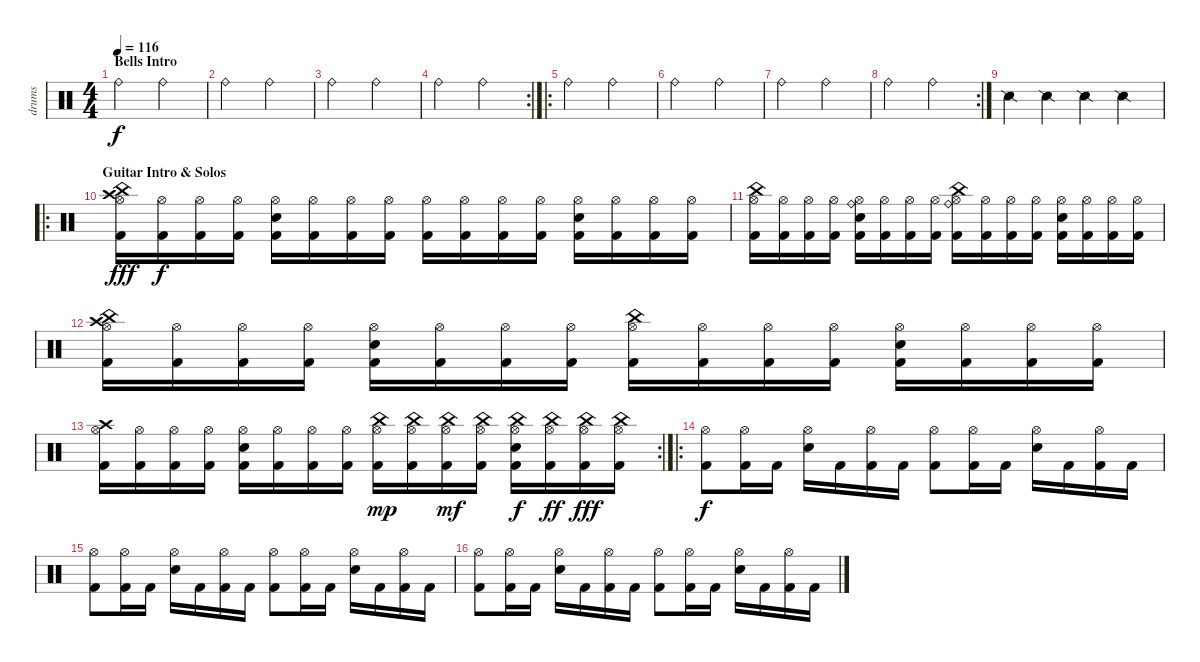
\track ("drums" "drums") {instrument percussion}
\staff {score}
\articulation defaults
\ts (4 4)
\section ("" "Bells Intro")
\tempo 116
\clef neutral
\ks c "Ride (bell)".2{dy f} "Ride (bell)".2
|
"Ride (bell)".2 "Ride (bell)".2 |
"Ride (bell)".2 "Ride (bell)".2 |
\rc 2 "Ride (bell)".2 "Ride (bell)".2
|
\ro "Ride (bell)".2 "Ride (bell)".2
|
"Ride (bell)".2 "Ride (bell)".2 |
"Ride (bell)".2 "Ride (bell)".2 |
\rc 2 "Ride (bell)".2 "Ride (bell)".2
|
"Snare (side stick) 2".4 "Snare (side stick) 2".4 "Snare (side stick) 2".4 "Snare (side stick) 2".4 |
\ro
\section ("" "Guitar Intro & Solos")
("China (hit)" "Crash high (hit)" "Hi-Hat (open)" "Kick (hit) 2").16{dy fff} ("Hi-Hat (open)" "Kick (hit) 2").16{dy f} ("Hi-Hat (open)" "Kick (hit) 2").16 ("Hi-Hat (open)" "Kick (hit) 2").16 ("Hi-Hat (open)" "Electric Snare (hit)" "Kick (hit) 2").16 ("Hi-Hat (open)" "Kick (hit) 2").16 ("Hi-Hat (open)" "Kick (hit) 2").16 ("Hi-Hat (open)" "Kick (hit) 2").16 ("Hi-Hat (open)" "Kick (hit) 2").16 ("Hi-Hat (open)" "Kick (hit) 2").16 ("Hi-Hat (open)" "Kick (hit) 2").16 ("Hi-Hat (open)" "Kick (hit) 2").16 ("Hi-Hat (open)" "Electric Snare (hit)" "Kick (hit) 2").16 ("Hi-Hat (open)" "Kick (hit) 2").16 ("Hi-Hat (open)" "Kick (hit) 2").16 ("Hi-Hat (open)" "Kick (hit) 2").16 |
("China (hit)" "Hi-Hat (open)" "Kick (hit) 2").16 ("Hi-Hat (open)" "Kick (hit) 2").16 ("Hi-Hat (open)" "Kick (hit) 2").16 ("Hi-Hat (open)" "Kick (hit) 2").16 ("Ride (bell)" "Hi-Hat (open)" "Electric Snare (hit)" "Kick (hit) 2").16 ("Hi-Hat (open)" "Kick (hit) 2").16 ("Hi-Hat (open)" "Kick (hit) 2").16 ("Hi-Hat (open)" "Kick (hit) 2").16 ("Ride (bell)" "China (hit)" "Hi-Hat (open)" "Kick (hit) 2").16 ("Hi-Hat (open)" "Kick (hit) 2").16 ("Hi-Hat (open)" "Kick (hit) 2").16 ("Hi-Hat (open)" "Kick (hit) 2").16 ("Hi-Hat (open)" "Electric Snare (hit)" "Kick (hit) 2").16 ("Hi-Hat (open)" "Kick (hit) 2").16 ("Hi-Hat (open)" "Kick (hit) 2").16 ("Hi-Hat (open)" "Kick (hit) 2").16 |
("China (hit)" "Crash high (hit)" "Hi-Hat (open)" "Kick (hit) 2").16 ("Hi-Hat (open)" "Kick (hit) 2").16 ("Hi-Hat (open)" "Kick (hit) 2").16 ("Hi-Hat (open)" "Kick (hit) 2").16 ("Hi-Hat (open)" "Electric Snare (hit)" "Kick (hit) 2").16 ("Hi-Hat (open)" "Kick (hit) 2").16 ("Hi-Hat (open)" "Kick (hit) 2").16 ("Hi-Hat (open)" "Kick (hit) 2").16 ("China (hit)" "Hi-Hat (open)" "Kick (hit) 2").16 ("Hi-Hat (open)" "Kick (hit) 2").16 ("Hi-Hat (open)" "Kick (hit) 2").16 ("Hi-Hat (open)" "Kick (hit) 2").16 ("Hi-Hat (open)" "Electric Snare (hit)" "Kick (hit) 2").16 ("Hi-Hat (open)" "Kick (hit) 2").16 ("Hi-Hat (open)" "Kick (hit) 2").16 ("Hi-Hat (open)" "Kick (hit) 2").16 |
\rc 2
("Crash high (hit)" "Hi-Hat (open)" "Kick (hit) 2").16 ("Hi-Hat (open)" "Kick (hit) 2").16 ("Hi-Hat (open)" "Kick (hit) 2").16 ("Hi-Hat (open)" "Kick (hit) 2").16 ("Hi-Hat (open)" "Electric Snare (hit)" "Kick (hit) 2").16 ("Hi-Hat (open)" "Kick (hit) 2").16 ("Hi-Hat (open)" "Kick (hit) 2").16 ("Hi-Hat (open)" "Kick (hit) 2").16 ("China (hit)" "Hi-Hat (open)" "Kick (hit) 2").16{dy mp} ("China (hit)" "Hi-Hat (open)" "Kick (hit) 2").16 ("China (hit)" "Hi-Hat (open)" "Kick (hit) 2").16{dy mf} ("China (hit)" "Hi-Hat (open)" "Kick (hit) 2").16 ("China (hit)" "Hi-Hat (open)" "Electric Snare (hit)" "Kick (hit) 2").16{dy f} ("China (hit)" "Hi-Hat (open)" "Kick (hit) 2").16{dy ff} ("China (hit)" "Hi-Hat (open)" "Kick (hit) 2").16{dy fff} ("China (hit)" "Hi-Hat (open)" "Kick (hit) 2").16 |
\ro
("Hi-Hat (open)" "Kick (hit) 2").8{dy f} ("Hi-Hat (open)" "Kick (hit) 2").16 "Kick (hit) 2".16 ("Hi-Hat (open)" "Electric Snare (hit)").16 "Kick (hit) 2".16 ("Hi-Hat (open)" "Kick (hit) 2").16 "Kick (hit) 2".16 ("Hi-Hat (open)" "Kick (hit) 2").8 ("Hi-Hat (open)" "Kick (hit) 2").16 "Kick (hit) 2".16 ("Hi-Hat (open)" "Electric Snare (hit)").16 "Kick (hit) 2".16 ("Hi-Hat (open)" "Kick (hit) 2").16 "Kick (hit) 2".16 |
("Hi-Hat (open)" "Kick (hit) 2").8 ("Hi-Hat (open)" "Kick (hit) 2").16 "Kick (hit) 2".16 ("Hi-Hat (open)" "Electric Snare (hit)").16 "Kick (hit) 2".16 ("Hi-Hat (open)" "Kick (hit) 2").16 "Kick (hit) 2".16 ("Hi-Hat (open)" "Kick (hit) 2").8 ("Hi-Hat (open)" "Kick (hit) 2").16 "Kick (hit) 2".16 ("Hi-Hat (open)" "Electric Snare (hit)").16 "Kick (hit) 2".16 ("Hi-Hat (open)" "Kick (hit) 2").16 "Kick (hit) 2".16 |
("Hi-Hat (open)" "Kick (hit) 2").8 ("Hi-Hat (open)" "Kick (hit) 2").16 "Kick (hit) 2".16 ("Hi-Hat (open)" "Electric Snare (hit)").16 "Kick (hit) 2".16 ("Hi-Hat (open)" "Kick (hit) 2").16 "Kick (hit) 2".16 ("Hi-Hat (open)" "Kick (hit) 2").8 ("Hi-Hat (open)" "Kick (hit) 2").16 "Kick (hit) 2".16 ("Hi-Hat (open)" "Electric Snare (hit)").16 "Kick (hit) 2".16 ("Hi-Hat (open)" "Kick (hit) 2").16 "Kick (hit) 2".16
